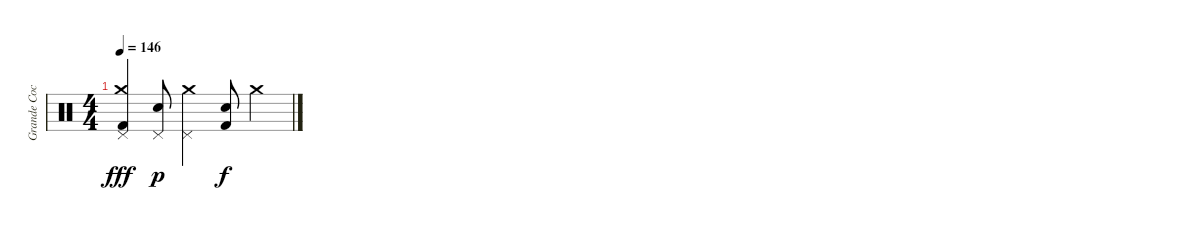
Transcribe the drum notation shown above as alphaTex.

\track ("Grande Coco !" "Grande Coc") {instrument percussion}
\staff {score}
\articulation defaults
\ts (4 4)
\tempo 146
\clef neutral
\ks c
("Pedal Hi-Hat (hit)" "Crash medium (hit)" "Kick (hit) 2").4{dy fff} ("Pedal Hi-Hat (hit)" "Electric Snare (hit)").8{dy p} ("Pedal Hi-Hat (hit)" "Crash medium (hit)").4 ("Electric Snare (hit)" "Kick (hit) 2").8{dy f} "Crash medium (hit)".4
